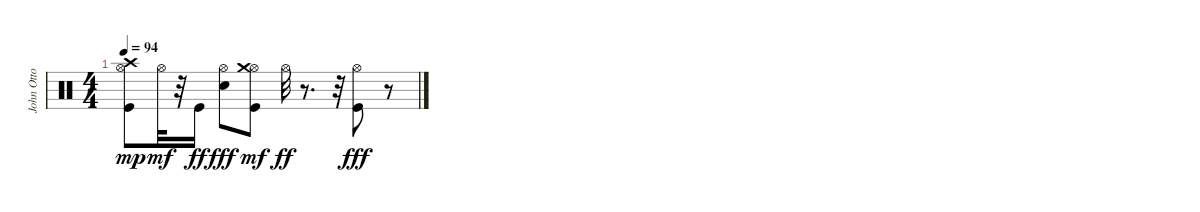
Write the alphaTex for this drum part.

\track ("John Otto" "John Otto") {instrument percussion}
\staff {score}
\articulation defaults
\ts (4 4)
\tempo 94
\clef neutral
\ks c
("Hi-Hat (open)" "Kick (hit)" "Crash high (hit)").8{dy mp} "Hi-Hat (open)".32{dy mf} r.32 "Kick (hit)".16{dy ff} ("Hi-Hat (open)" "Electric Snare (hit)").8{dy fff} ("Hi-Hat (open)" "Kick (hit)" "Crash medium (hit)").8{dy mf} "Hi-Hat (open)".32{dy ff} r.8{d} r.32 ("Hi-Hat (open)" "Kick (hit)").8{dy fff} r.8
